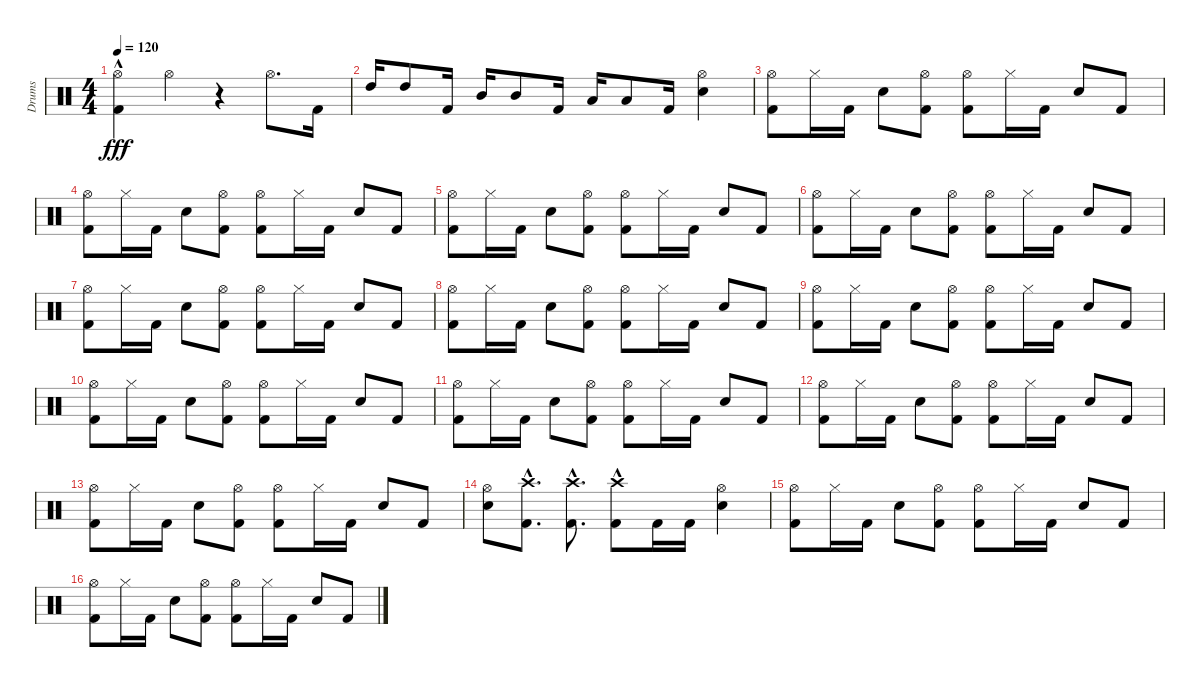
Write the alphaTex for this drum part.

\track ("Drums" "Drums") {instrument percussion}
\staff {score}
\articulation defaults
\ts (4 4)
\tempo 120
\clef neutral
\ks c
("Hi-Hat (open)" "Kick (hit) 2"{hac}).4{dy fff} "Hi-Hat (open)".4 r.4 "Hi-Hat (open)".8{d} "Kick (hit) 2".16 |
"High Tom (hit)".16 "High Tom (hit)".8 "Kick (hit) 2".16 "Mid Tom (hit)".16 "Mid Tom (hit)".8 "Kick (hit) 2".16 "Low Tom (hit)".16 "Low Tom (hit)".8 "Kick (hit) 2".16 ("Hi-Hat (open)" "Electric Snare (hit)").4 |
("Hi-Hat (open)" "Kick (hit) 2").8 "Hi-Hat (closed)".16 "Kick (hit) 2".16 "Electric Snare (hit)".8 ("Hi-Hat (open)" "Kick (hit) 2").8 ("Hi-Hat (open)" "Kick (hit) 2").8 "Hi-Hat (closed)".16 "Kick (hit) 2".16 "Electric Snare (hit)".8 "Kick (hit) 2".8 |
("Hi-Hat (open)" "Kick (hit) 2").8 "Hi-Hat (closed)".16 "Kick (hit) 2".16 "Electric Snare (hit)".8 ("Hi-Hat (open)" "Kick (hit) 2").8 ("Hi-Hat (open)" "Kick (hit) 2").8 "Hi-Hat (closed)".16 "Kick (hit) 2".16 "Electric Snare (hit)".8 "Kick (hit) 2".8 |
("Hi-Hat (open)" "Kick (hit) 2").8 "Hi-Hat (closed)".16 "Kick (hit) 2".16 "Electric Snare (hit)".8 ("Hi-Hat (open)" "Kick (hit) 2").8 ("Hi-Hat (open)" "Kick (hit) 2").8 "Hi-Hat (closed)".16 "Kick (hit) 2".16 "Electric Snare (hit)".8 "Kick (hit) 2".8 |
("Hi-Hat (open)" "Kick (hit) 2").8 "Hi-Hat (closed)".16 "Kick (hit) 2".16 "Electric Snare (hit)".8 ("Hi-Hat (open)" "Kick (hit) 2").8 ("Hi-Hat (open)" "Kick (hit) 2").8 "Hi-Hat (closed)".16 "Kick (hit) 2".16 "Electric Snare (hit)".8 "Kick (hit) 2".8 |
("Hi-Hat (open)" "Kick (hit) 2").8 "Hi-Hat (closed)".16 "Kick (hit) 2".16 "Electric Snare (hit)".8 ("Hi-Hat (open)" "Kick (hit) 2").8 ("Hi-Hat (open)" "Kick (hit) 2").8 "Hi-Hat (closed)".16 "Kick (hit) 2".16 "Electric Snare (hit)".8 "Kick (hit) 2".8 |
("Hi-Hat (open)" "Kick (hit) 2").8 "Hi-Hat (closed)".16 "Kick (hit) 2".16 "Electric Snare (hit)".8 ("Hi-Hat (open)" "Kick (hit) 2").8 ("Hi-Hat (open)" "Kick (hit) 2").8 "Hi-Hat (closed)".16 "Kick (hit) 2".16 "Electric Snare (hit)".8 "Kick (hit) 2".8 |
("Hi-Hat (open)" "Kick (hit) 2").8 "Hi-Hat (closed)".16 "Kick (hit) 2".16 "Electric Snare (hit)".8 ("Hi-Hat (open)" "Kick (hit) 2").8 ("Hi-Hat (open)" "Kick (hit) 2").8 "Hi-Hat (closed)".16 "Kick (hit) 2".16 "Electric Snare (hit)".8 "Kick (hit) 2".8 |
("Hi-Hat (open)" "Kick (hit) 2").8 "Hi-Hat (closed)".16 "Kick (hit) 2".16 "Electric Snare (hit)".8 ("Hi-Hat (open)" "Kick (hit) 2").8 ("Hi-Hat (open)" "Kick (hit) 2").8 "Hi-Hat (closed)".16 "Kick (hit) 2".16 "Electric Snare (hit)".8 "Kick (hit) 2".8 |
("Hi-Hat (open)" "Kick (hit) 2").8 "Hi-Hat (closed)".16 "Kick (hit) 2".16 "Electric Snare (hit)".8 ("Hi-Hat (open)" "Kick (hit) 2").8 ("Hi-Hat (open)" "Kick (hit) 2").8 "Hi-Hat (closed)".16 "Kick (hit) 2".16 "Electric Snare (hit)".8 "Kick (hit) 2".8 |
("Hi-Hat (open)" "Kick (hit) 2").8 "Hi-Hat (closed)".16 "Kick (hit) 2".16 "Electric Snare (hit)".8 ("Hi-Hat (open)" "Kick (hit) 2").8 ("Hi-Hat (open)" "Kick (hit) 2").8 "Hi-Hat (closed)".16 "Kick (hit) 2".16 "Electric Snare (hit)".8 "Kick (hit) 2".8 |
("Hi-Hat (open)" "Kick (hit) 2").8 "Hi-Hat (closed)".16 "Kick (hit) 2".16 "Electric Snare (hit)".8 ("Hi-Hat (open)" "Kick (hit) 2").8 ("Hi-Hat (open)" "Kick (hit) 2").8 "Hi-Hat (closed)".16 "Kick (hit) 2".16 "Electric Snare (hit)".8 "Kick (hit) 2".8 |
("Hi-Hat (open)" "Electric Snare (hit)").8 ("Crash high (hit)" "Kick (hit) 2"{hac}).8{d} ("Crash high (hit)"{hac} "Kick (hit) 2"{hac}).8{d} ("Crash high (hit)"{hac} "Kick (hit) 2").8 "Kick (hit) 2".16 "Kick (hit) 2".16 ("Hi-Hat (open)" "Electric Snare (hit)").4 |
("Hi-Hat (open)" "Kick (hit) 2").8 "Hi-Hat (closed)".16 "Kick (hit) 2".16 "Electric Snare (hit)".8 ("Hi-Hat (open)" "Kick (hit) 2").8 ("Hi-Hat (open)" "Kick (hit) 2").8 "Hi-Hat (closed)".16 "Kick (hit) 2".16 "Electric Snare (hit)".8 "Kick (hit) 2".8 |
("Hi-Hat (open)" "Kick (hit) 2").8 "Hi-Hat (closed)".16 "Kick (hit) 2".16 "Electric Snare (hit)".8 ("Hi-Hat (open)" "Kick (hit) 2").8 ("Hi-Hat (open)" "Kick (hit) 2").8 "Hi-Hat (closed)".16 "Kick (hit) 2".16 "Electric Snare (hit)".8 "Kick (hit) 2".8
